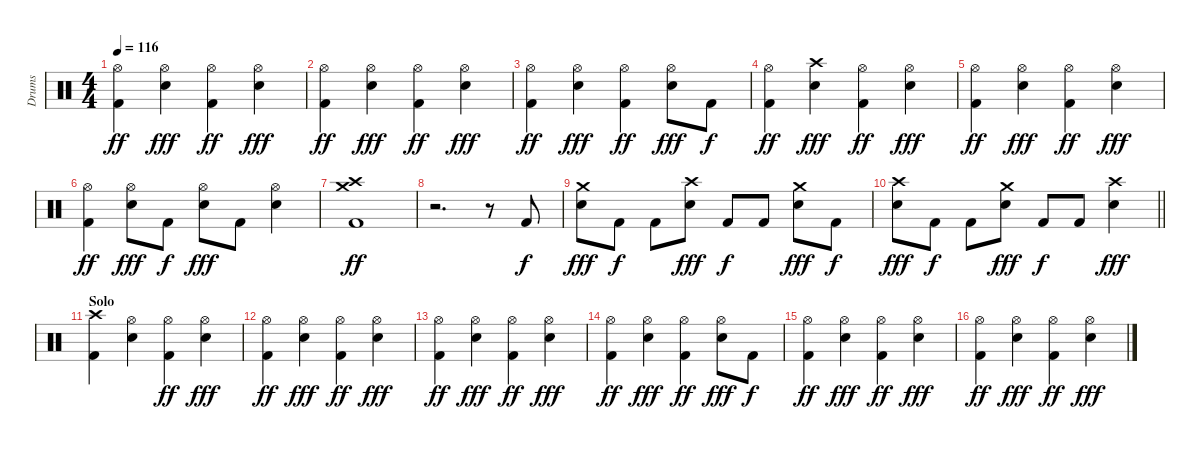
\track ("Drums" "Drums") {instrument percussion}
\staff {score}
\articulation defaults
\ts (4 4)
\tempo 116
\clef neutral
\ks c
("Hi-Hat (open)" "Kick (hit) 2").4{dy ff} ("Hi-Hat (open)" "Snare (hit) 2").4{dy fff} ("Hi-Hat (open)" "Kick (hit) 2").4{dy ff} ("Hi-Hat (open)" "Snare (hit) 2").4{dy fff} |
("Hi-Hat (open)" "Kick (hit) 2").4{dy ff} ("Hi-Hat (open)" "Snare (hit) 2").4{dy fff} ("Hi-Hat (open)" "Kick (hit) 2").4{dy ff} ("Hi-Hat (open)" "Snare (hit) 2").4{dy fff} |
("Hi-Hat (open)" "Kick (hit) 2").4{dy ff} ("Hi-Hat (open)" "Snare (hit) 2").4{dy fff} ("Hi-Hat (open)" "Kick (hit) 2").4{dy ff} ("Hi-Hat (open)" "Snare (hit) 2").8{dy fff} "Kick (hit) 2".8{dy f} |
("Hi-Hat (open)" "Kick (hit) 2").4{dy ff} ("Crash high (hit)" "Snare (hit) 2").4{dy fff} ("Hi-Hat (open)" "Kick (hit) 2").4{dy ff} ("Hi-Hat (open)" "Snare (hit) 2").4{dy fff} |
("Hi-Hat (open)" "Kick (hit) 2").4{dy ff} ("Hi-Hat (open)" "Snare (hit) 2").4{dy fff} ("Hi-Hat (open)" "Kick (hit) 2").4{dy ff} ("Hi-Hat (open)" "Snare (hit) 2").4{dy fff} |
("Hi-Hat (open)" "Kick (hit) 2").4{dy ff} ("Hi-Hat (open)" "Snare (hit) 2").8{dy fff} "Kick (hit) 2".8{dy f} ("Hi-Hat (open)" "Snare (hit) 2").8{dy fff} "Kick (hit) 2".8 ("Hi-Hat (open)" "Snare (hit) 2").4 |
("Crash high (hit)" "Crash medium (hit)" "Kick (hit) 2").1{dy ff} |
r.2{d} r.8 "Kick (hit) 2".8{dy f} |
("Crash medium (hit)" "Snare (hit) 2").8{dy fff} "Kick (hit) 2".8{dy f} "Kick (hit) 2".8 ("Crash high (hit)" "Snare (hit) 2").8{dy fff} "Kick (hit) 2".8{dy f} "Kick (hit) 2".8 ("Crash medium (hit)" "Snare (hit) 2").8{dy fff} "Kick (hit) 2".8{dy f} |
\barLineRight lightlight
("Crash high (hit)" "Snare (hit) 2").8{dy fff} "Kick (hit) 2".8{dy f} "Kick (hit) 2".8 ("Crash medium (hit)" "Snare (hit) 2").8{dy fff} "Kick (hit) 2".8{dy f} "Kick (hit) 2".8 ("Crash high (hit)" "Snare (hit) 2").4{dy fff} |
\section ("" "Solo")
("Crash high (hit)" "Kick (hit) 2").4 ("Hi-Hat (open)" "Snare (hit) 2").4 ("Hi-Hat (open)" "Kick (hit) 2").4{dy ff} ("Hi-Hat (open)" "Snare (hit) 2").4{dy fff} |
("Hi-Hat (open)" "Kick (hit) 2").4{dy ff} ("Hi-Hat (open)" "Snare (hit) 2").4{dy fff} ("Hi-Hat (open)" "Kick (hit) 2").4{dy ff} ("Hi-Hat (open)" "Snare (hit) 2").4{dy fff} |
("Hi-Hat (open)" "Kick (hit) 2").4{dy ff} ("Hi-Hat (open)" "Snare (hit) 2").4{dy fff} ("Hi-Hat (open)" "Kick (hit) 2").4{dy ff} ("Hi-Hat (open)" "Snare (hit) 2").4{dy fff} |
("Hi-Hat (open)" "Kick (hit) 2").4{dy ff} ("Hi-Hat (open)" "Snare (hit) 2").4{dy fff} ("Hi-Hat (open)" "Kick (hit) 2").4{dy ff} ("Hi-Hat (open)" "Snare (hit) 2").8{dy fff} "Kick (hit) 2".8{dy f} |
("Hi-Hat (open)" "Kick (hit) 2").4{dy ff} ("Hi-Hat (open)" "Snare (hit) 2").4{dy fff} ("Hi-Hat (open)" "Kick (hit) 2").4{dy ff} ("Hi-Hat (open)" "Snare (hit) 2").4{dy fff} |
("Hi-Hat (open)" "Kick (hit) 2").4{dy ff} ("Hi-Hat (open)" "Snare (hit) 2").4{dy fff} ("Hi-Hat (open)" "Kick (hit) 2").4{dy ff} ("Hi-Hat (open)" "Snare (hit) 2").4{dy fff}
